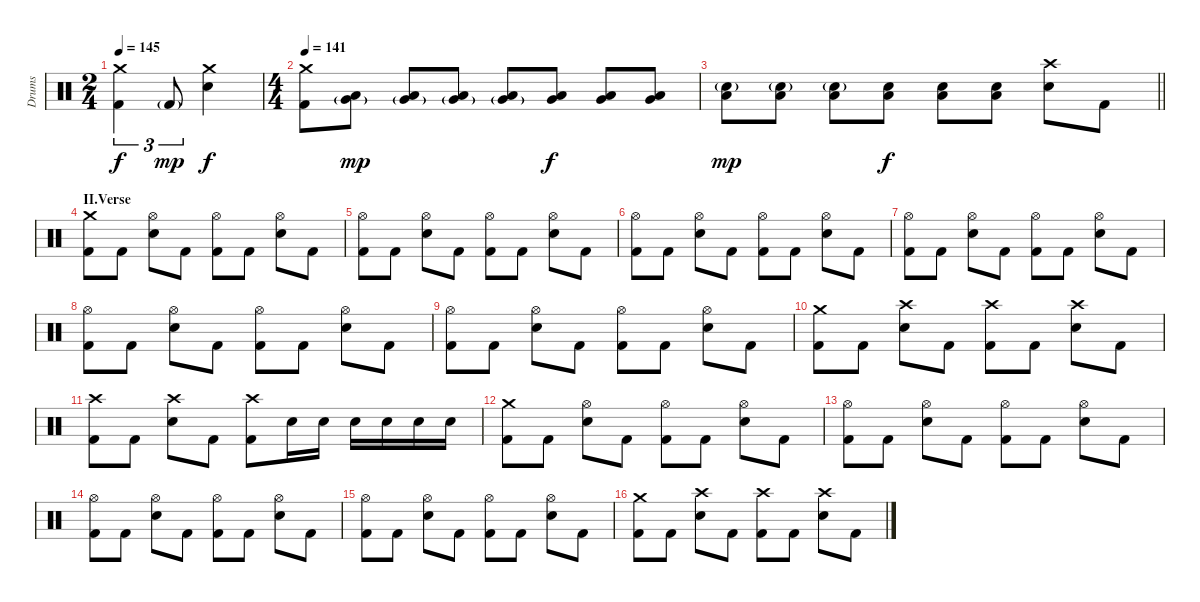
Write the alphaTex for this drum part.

\track ("Drums" "Drums") {instrument percussion}
\staff {score}
\articulation defaults
\ts (2 4)
\tempo 145
\clef neutral
\ks c
("Crash medium (hit)" "Kick (hit) 2").4{tu (3 2) dy f} "Kick (hit) 2"{g}.8{tu (3 2) dy mp} ("Crash medium (hit)" "Electric Snare (hit)").4{dy f} |
\ts (4 4)
\tempo 141
("Crash medium (hit)" "Kick (hit) 2").8 ("Very Low Tom (hit)"{g} "Low Floor Tom (hit)").8{dy mp} ("Very Low Tom (hit)"{g} "Low Floor Tom (hit)").8 ("Very Low Tom (hit)"{g} "Low Floor Tom (hit)").8 ("Very Low Tom (hit)"{g} "Low Floor Tom (hit)").8 ("Very Low Tom (hit)" "Low Floor Tom (hit)").8{dy f} ("Very Low Tom (hit)" "Low Floor Tom (hit)").8 ("Very Low Tom (hit)" "Low Floor Tom (hit)").8 |
\barLineRight lightlight
("Low Tom (hit)" "Electric Snare (hit)"{g}).8{dy mp} ("Low Tom (hit)" "Electric Snare (hit)"{g}).8 ("Low Tom (hit)" "Electric Snare (hit)"{g}).8 ("Low Tom (hit)" "Electric Snare (hit)").8{dy f} ("Low Tom (hit)" "Electric Snare (hit)").8 ("Low Tom (hit)" "Electric Snare (hit)").8 ("Crash high (hit)" "Electric Snare (hit)").8 "Kick (hit) 2".8 |
\section ("" "II.Verse")
("Crash medium (hit)" "Kick (hit) 2").8 "Kick (hit) 2".8 ("Hi-Hat (open)" "Electric Snare (hit)").8 "Kick (hit) 2".8 ("Hi-Hat (open)" "Kick (hit) 2").8 "Kick (hit) 2".8 ("Hi-Hat (open)" "Electric Snare (hit)").8 "Kick (hit) 2".8 |
("Hi-Hat (open)" "Kick (hit) 2").8 "Kick (hit) 2".8 ("Hi-Hat (open)" "Electric Snare (hit)").8 "Kick (hit) 2".8 ("Hi-Hat (open)" "Kick (hit) 2").8 "Kick (hit) 2".8 ("Hi-Hat (open)" "Electric Snare (hit)").8 "Kick (hit) 2".8 |
("Hi-Hat (open)" "Kick (hit) 2").8 "Kick (hit) 2".8 ("Hi-Hat (open)" "Electric Snare (hit)").8 "Kick (hit) 2".8 ("Hi-Hat (open)" "Kick (hit) 2").8 "Kick (hit) 2".8 ("Hi-Hat (open)" "Electric Snare (hit)").8 "Kick (hit) 2".8 |
("Hi-Hat (open)" "Kick (hit) 2").8 "Kick (hit) 2".8 ("Hi-Hat (open)" "Electric Snare (hit)").8 "Kick (hit) 2".8 ("Hi-Hat (open)" "Kick (hit) 2").8 "Kick (hit) 2".8 ("Hi-Hat (open)" "Electric Snare (hit)").8 "Kick (hit) 2".8 |
("Hi-Hat (open)" "Kick (hit) 2").8 "Kick (hit) 2".8 ("Hi-Hat (open)" "Electric Snare (hit)").8 "Kick (hit) 2".8 ("Hi-Hat (open)" "Kick (hit) 2").8 "Kick (hit) 2".8 ("Hi-Hat (open)" "Electric Snare (hit)").8 "Kick (hit) 2".8 |
("Hi-Hat (open)" "Kick (hit) 2").8 "Kick (hit) 2".8 ("Hi-Hat (open)" "Electric Snare (hit)").8 "Kick (hit) 2".8 ("Hi-Hat (open)" "Kick (hit) 2").8 "Kick (hit) 2".8 ("Hi-Hat (open)" "Electric Snare (hit)").8 "Kick (hit) 2".8 |
("Crash medium (hit)" "Kick (hit) 2").8 "Kick (hit) 2".8 ("Crash high (hit)" "Electric Snare (hit)").8 "Kick (hit) 2".8 ("Crash high (hit)" "Kick (hit) 2").8 "Kick (hit) 2".8 ("Crash high (hit)" "Electric Snare (hit)").8 "Kick (hit) 2".8 |
("Crash high (hit)" "Kick (hit) 2").8 "Kick (hit) 2".8 ("Crash high (hit)" "Electric Snare (hit)").8 "Kick (hit) 2".8 ("Crash high (hit)" "Kick (hit) 2").8 "Electric Snare (hit)".16 "Electric Snare (hit)".16 "Electric Snare (hit)".16 "Electric Snare (hit)".16 "Electric Snare (hit)".16 "Electric Snare (hit)".16 |
("Crash medium (hit)" "Kick (hit) 2").8 "Kick (hit) 2".8 ("Hi-Hat (open)" "Electric Snare (hit)").8 "Kick (hit) 2".8 ("Hi-Hat (open)" "Kick (hit) 2").8 "Kick (hit) 2".8 ("Hi-Hat (open)" "Electric Snare (hit)").8 "Kick (hit) 2".8 |
("Hi-Hat (open)" "Kick (hit) 2").8 "Kick (hit) 2".8 ("Hi-Hat (open)" "Electric Snare (hit)").8 "Kick (hit) 2".8 ("Hi-Hat (open)" "Kick (hit) 2").8 "Kick (hit) 2".8 ("Hi-Hat (open)" "Electric Snare (hit)").8 "Kick (hit) 2".8 |
("Hi-Hat (open)" "Kick (hit) 2").8 "Kick (hit) 2".8 ("Hi-Hat (open)" "Electric Snare (hit)").8 "Kick (hit) 2".8 ("Hi-Hat (open)" "Kick (hit) 2").8 "Kick (hit) 2".8 ("Hi-Hat (open)" "Electric Snare (hit)").8 "Kick (hit) 2".8 |
("Hi-Hat (open)" "Kick (hit) 2").8 "Kick (hit) 2".8 ("Hi-Hat (open)" "Electric Snare (hit)").8 "Kick (hit) 2".8 ("Hi-Hat (open)" "Kick (hit) 2").8 "Kick (hit) 2".8 ("Hi-Hat (open)" "Electric Snare (hit)").8 "Kick (hit) 2".8 |
("Crash medium (hit)" "Kick (hit) 2").8 "Kick (hit) 2".8 ("Crash high (hit)" "Electric Snare (hit)").8 "Kick (hit) 2".8 ("Crash high (hit)" "Kick (hit) 2").8 "Kick (hit) 2".8 ("Crash high (hit)" "Electric Snare (hit)").8 "Kick (hit) 2".8
